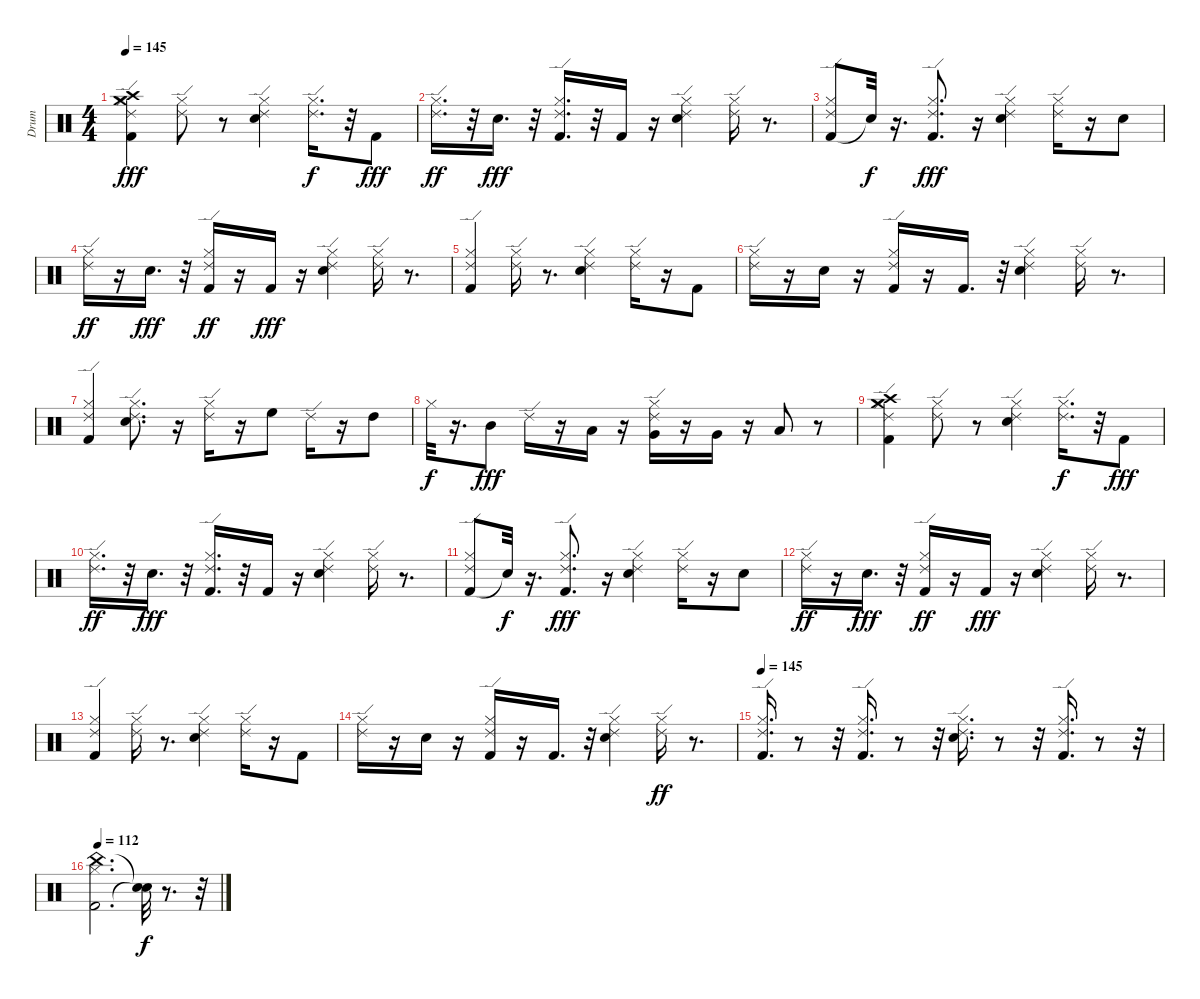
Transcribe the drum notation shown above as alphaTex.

\track ("Drum" "Drum") {instrument percussion}
\staff {score}
\articulation defaults
\ts (4 4)
\tempo 145
\clef neutral
\ks c
("Crash medium (hit)" "Crash high (hit)" "Kick (hit) 2" "Hi-Hat (closed)" "Ride (edge) 2").4{dy fff} ("Hi-Hat (closed)" "Ride (edge) 2").8 r.8 ("Snare (hit) 2" "Hi-Hat (closed)" "Ride (edge) 2").4 ("Hi-Hat (closed)" "Ride (edge) 2").16{d dy f} r.32 "Kick (hit) 2".8{dy fff} |
("Hi-Hat (closed)" "Ride (edge) 2").16{d dy ff} r.32 "Snare (hit) 2".16{d dy fff} r.32 ("Kick (hit) 2" "Hi-Hat (closed)" "Ride (edge) 2").16{d} r.32 "Kick (hit) 2".16 r.16 ("Snare (hit) 2" "Hi-Hat (closed)" "Ride (edge) 2").4 ("Hi-Hat (closed)" "Ride (edge) 2").16 r.8{d} |
("Kick (hit) 2" "Hi-Hat (closed)" "Ride (edge) 2").8 "Snare (hit)"{t}.32{dy f} r.16{d} ("Kick (hit) 2" "Hi-Hat (closed)" "Ride (edge) 2").8{d dy fff} r.16 ("Snare (hit) 2" "Hi-Hat (closed)" "Ride (edge) 2").4 ("Hi-Hat (closed)" "Ride (edge) 2").16 r.16 "Snare (hit) 2".8 |
("Hi-Hat (closed)" "Ride (edge) 2").16{dy ff} r.16 "Snare (hit) 2".16{d dy fff} r.32 ("Kick (hit) 2" "Hi-Hat (closed)" "Ride (edge) 2").16{dy ff} r.16 "Kick (hit) 2".16{dy fff} r.16 ("Snare (hit) 2" "Hi-Hat (closed)" "Ride (edge) 2").4 ("Hi-Hat (closed)" "Ride (edge) 2").16 r.8{d} |
("Kick (hit) 2" "Hi-Hat (closed)" "Ride (edge) 2").4 ("Hi-Hat (closed)" "Ride (edge) 2").16 r.8{d} ("Snare (hit) 2" "Hi-Hat (closed)" "Ride (edge) 2").4 ("Hi-Hat (closed)" "Ride (edge) 2").16 r.16 "Kick (hit) 2".8 |
("Hi-Hat (closed)" "Ride (edge) 2").16 r.16 "Snare (hit) 2".16 r.16 ("Kick (hit) 2" "Hi-Hat (closed)" "Ride (edge) 2").16 r.16 "Kick (hit) 2".16{d} r.32 ("Snare (hit) 2" "Hi-Hat (closed)" "Ride (edge) 2").4 ("Hi-Hat (closed)" "Ride (edge) 2").16 r.8{d} |
("Kick (hit) 2" "Hi-Hat (closed)" "Ride (edge) 2").4 ("Snare (hit) 2" "Hi-Hat (closed)" "Ride (edge) 2").8{d} r.16 ("Hi-Hat (closed)" "Ride (edge) 2").16 r.16 "High Floor Tom (hit)".8 "Ride (edge) 2".16 r.16 "High Tom (hit)".8 |
"Hi-Hat (closed)".32{dy f} r.16{d} "Mid Tom (hit)".8{dy fff} "Ride (edge) 2".16 r.16 "Low Tom (hit)".16 r.16 ("Very Low Tom (hit)" "Hi-Hat (closed)" "Ride (edge) 2").16 r.16 "Very Low Tom (hit)".16 r.16 "Low Floor Tom (hit)".8 r.8 |
("Crash medium (hit)" "Crash high (hit)" "Kick (hit) 2" "Hi-Hat (closed)" "Ride (edge) 2").4 ("Hi-Hat (closed)" "Ride (edge) 2").8 r.8 ("Snare (hit) 2" "Hi-Hat (closed)" "Ride (edge) 2").4 ("Hi-Hat (closed)" "Ride (edge) 2").16{d dy f} r.32 "Kick (hit) 2".8{dy fff} |
("Hi-Hat (closed)" "Ride (edge) 2").16{d dy ff} r.32 "Snare (hit) 2".16{d dy fff} r.32 ("Kick (hit) 2" "Hi-Hat (closed)" "Ride (edge) 2").16{d} r.32 "Kick (hit) 2".16 r.16 ("Snare (hit) 2" "Hi-Hat (closed)" "Ride (edge) 2").4 ("Hi-Hat (closed)" "Ride (edge) 2").16 r.8{d} |
("Kick (hit) 2" "Hi-Hat (closed)" "Ride (edge) 2").8 "Snare (hit)"{t}.32{dy f} r.16{d} ("Kick (hit) 2" "Hi-Hat (closed)" "Ride (edge) 2").8{d dy fff} r.16 ("Snare (hit) 2" "Hi-Hat (closed)" "Ride (edge) 2").4 ("Hi-Hat (closed)" "Ride (edge) 2").16 r.16 "Snare (hit) 2".8 |
("Hi-Hat (closed)" "Ride (edge) 2").16{dy ff} r.16 "Snare (hit) 2".16{d dy fff} r.32 ("Kick (hit) 2" "Hi-Hat (closed)" "Ride (edge) 2").16{dy ff} r.16 "Kick (hit) 2".16{dy fff} r.16 ("Snare (hit) 2" "Hi-Hat (closed)" "Ride (edge) 2").4 ("Hi-Hat (closed)" "Ride (edge) 2").16 r.8{d} |
("Kick (hit) 2" "Hi-Hat (closed)" "Ride (edge) 2").4 ("Hi-Hat (closed)" "Ride (edge) 2").16 r.8{d} ("Snare (hit) 2" "Hi-Hat (closed)" "Ride (edge) 2").4 ("Hi-Hat (closed)" "Ride (edge) 2").16 r.16 "Kick (hit) 2".8 |
("Hi-Hat (closed)" "Ride (edge) 2").16 r.16 "Snare (hit) 2".16 r.16 ("Kick (hit) 2" "Hi-Hat (closed)" "Ride (edge) 2").16 r.16 "Kick (hit) 2".16{d} r.32 ("Snare (hit) 2" "Hi-Hat (closed)" "Ride (edge) 2").4 ("Hi-Hat (closed)" "Ride (edge) 2").16{dy ff} r.8{d} |
\tempo 145
("Kick (hit) 2" "Hi-Hat (closed)" "Ride (edge) 2").16{d} r.8 r.32 ("Ride (edge) 2" "Kick (hit) 2" "Hi-Hat (closed)").16{d} r.8 r.32 ("Ride (edge) 2" "Snare (hit) 2" "Hi-Hat (closed)").16{d} r.8 r.32 ("Ride (edge) 2" "Kick (hit) 2" "Hi-Hat (closed)").16{d} r.8 r.32 |
\tempo 112
("China (hit)" "Kick (hit) 2" "Hi-Hat (closed)").2{d} ("Snare (hit)"{t} "Snare (hit)"{t}).32{dy f} r.8{d} r.32
